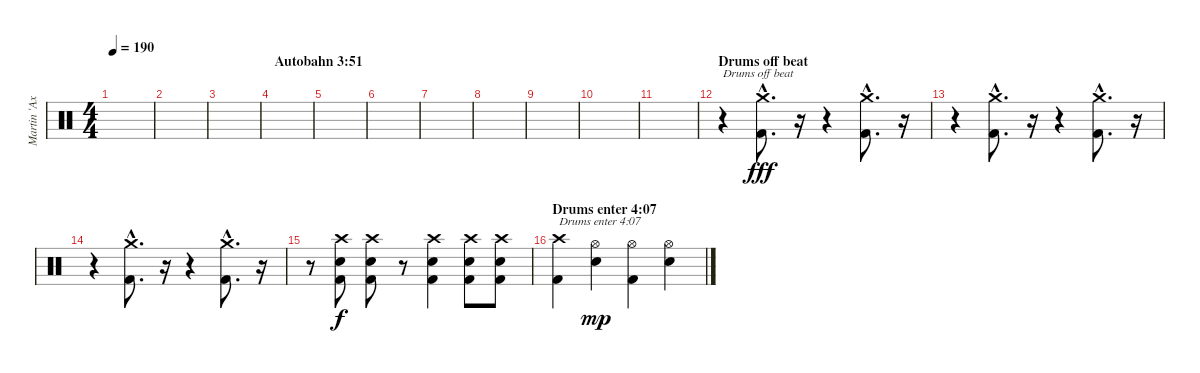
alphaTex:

\track ("Martin 'Axe' Axenroth" "Martin 'Ax") {instrument percussion}
\staff {score}
\articulation defaults
\ts (4 4)
\tempo 190
\clef neutral
\ks c
|
|
|
\section ("" "Autobahn 3:51")
|
|
|
|
|
|
|
|
\section ("" "Drums off beat")
r.4{txt "Drums off beat"} ("Kick (hit) 2"{hac} "Crash medium (hit)"{hac}).8{d dy fff} r.16{volume 0} r.4 ("Kick (hit) 2"{hac} "Crash medium (hit)"{hac}).8{d volume 13} r.16{volume 0} |
r.4 ("Kick (hit) 2"{hac} "Crash medium (hit)"{hac}).8{d volume 13} r.16{volume 0} r.4 ("Kick (hit) 2"{hac} "Crash medium (hit)"{hac}).8{d volume 13} r.16{volume 0} |
r.4 ("Kick (hit) 2"{hac} "Crash medium (hit)"{hac}).8{d volume 13} r.16{volume 0} r.4 ("Kick (hit) 2"{hac} "Crash medium (hit)"{hac}).8{d volume 13} r.16{volume 0} |
r.8 ("Kick (hit) 2" "Electric Snare (hit)" "Crash high (hit)").8{dy f volume 13} ("Kick (hit) 2" "Electric Snare (hit)" "Crash high (hit)").8 r.8 ("Kick (hit) 2" "Electric Snare (hit)" "Crash high (hit)").4 ("Kick (hit) 2" "Electric Snare (hit)" "Crash high (hit)").8 ("Kick (hit) 2" "Electric Snare (hit)" "Crash high (hit)").8 |
\section ("" "Drums enter 4:07")
("Kick (hit) 2" "Crash high (hit)").4{txt "Drums enter 4:07"} ("Electric Snare (hit)" "Hi-Hat (open)").4{dy mp} ("Kick (hit) 2" "Hi-Hat (open)").4 ("Electric Snare (hit)" "Hi-Hat (open)").4
